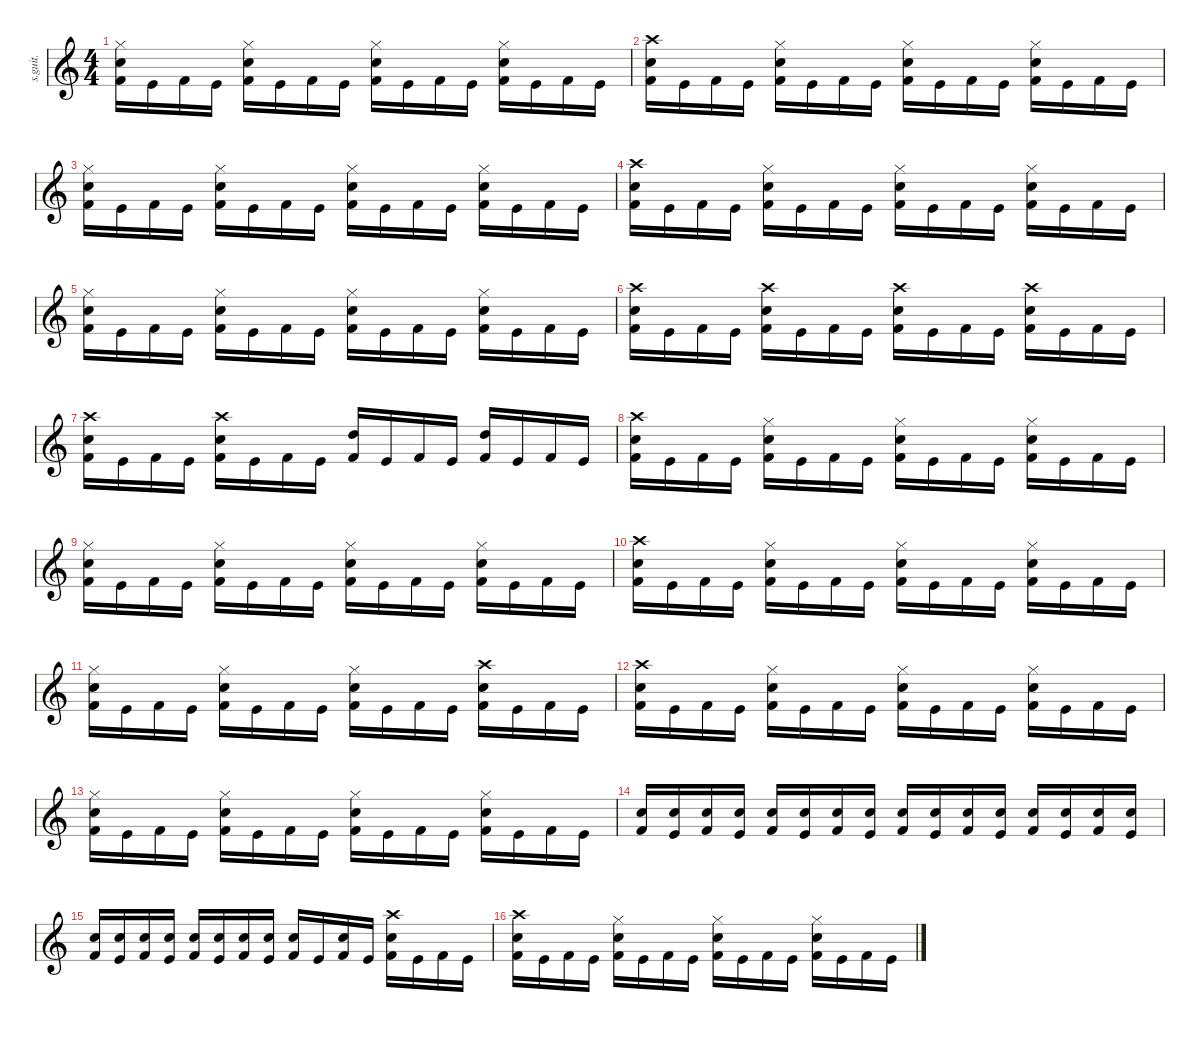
\defaultSystemsLayout 4
\hideDynamics
\bracketExtendMode nobrackets
\track ("Lars Ulrich - Drumzzz" "s.guit.") {instrument percussion}
\staff {score}
\articulation defaults
\ts (4 4)
\tempo (142 hide)
\clef g2
\ks c
("Hi-Hat (closed)" "Snare (hit) 2" "Kick (hit) 2").16{lyrics (0 "") lyrics (1 "") lyrics (2 "") lyrics (3 "") lyrics (4 "") dy f} "Kick (hit)".16{lyrics (0 "") lyrics (1 "") lyrics (2 "") lyrics (3 "") lyrics (4 "")} "Kick (hit) 2".16{lyrics (0 "") lyrics (1 "") lyrics (2 "") lyrics (3 "") lyrics (4 "")} "Kick (hit)".16{lyrics (0 "") lyrics (1 "") lyrics (2 "") lyrics (3 "") lyrics (4 "")} ("Hi-Hat (closed)" "Snare (hit) 2" "Kick (hit) 2").16{lyrics (0 "") lyrics (1 "") lyrics (2 "") lyrics (3 "") lyrics (4 "")} "Kick (hit)".16{lyrics (0 "") lyrics (1 "") lyrics (2 "") lyrics (3 "") lyrics (4 "")} "Kick (hit) 2".16{lyrics (0 "") lyrics (1 "") lyrics (2 "") lyrics (3 "") lyrics (4 "")} "Kick (hit)".16{lyrics (0 "") lyrics (1 "") lyrics (2 "") lyrics (3 "") lyrics (4 "")} ("Hi-Hat (closed)" "Snare (hit) 2" "Kick (hit) 2").16{lyrics (0 "") lyrics (1 "") lyrics (2 "") lyrics (3 "") lyrics (4 "")} "Kick (hit)".16{lyrics (0 "") lyrics (1 "") lyrics (2 "") lyrics (3 "") lyrics (4 "")} "Kick (hit) 2".16{lyrics (0 "") lyrics (1 "") lyrics (2 "") lyrics (3 "") lyrics (4 "")} "Kick (hit)".16{lyrics (0 "") lyrics (1 "") lyrics (2 "") lyrics (3 "") lyrics (4 "")} ("Hi-Hat (closed)" "Snare (hit) 2" "Kick (hit) 2").16{lyrics (0 "") lyrics (1 "") lyrics (2 "") lyrics (3 "") lyrics (4 "")} "Kick (hit)".16{lyrics (0 "") lyrics (1 "") lyrics (2 "") lyrics (3 "") lyrics (4 "")} "Kick (hit) 2".16{lyrics (0 "") lyrics (1 "") lyrics (2 "") lyrics (3 "") lyrics (4 "")} "Kick (hit)".16{lyrics (0 "") lyrics (1 "") lyrics (2 "") lyrics (3 "") lyrics (4 "")} |
("Crash high (hit)" "Snare (hit) 2" "Kick (hit) 2").16{lyrics (0 "") lyrics (1 "") lyrics (2 "") lyrics (3 "") lyrics (4 "")} "Kick (hit)".16{lyrics (0 "") lyrics (1 "") lyrics (2 "") lyrics (3 "") lyrics (4 "")} "Kick (hit) 2".16{lyrics (0 "") lyrics (1 "") lyrics (2 "") lyrics (3 "") lyrics (4 "")} "Kick (hit)".16{lyrics (0 "") lyrics (1 "") lyrics (2 "") lyrics (3 "") lyrics (4 "")} ("Hi-Hat (closed)" "Snare (hit) 2" "Kick (hit) 2").16{lyrics (0 "") lyrics (1 "") lyrics (2 "") lyrics (3 "") lyrics (4 "")} "Kick (hit)".16{lyrics (0 "") lyrics (1 "") lyrics (2 "") lyrics (3 "") lyrics (4 "")} "Kick (hit) 2".16{lyrics (0 "") lyrics (1 "") lyrics (2 "") lyrics (3 "") lyrics (4 "")} "Kick (hit)".16{lyrics (0 "") lyrics (1 "") lyrics (2 "") lyrics (3 "") lyrics (4 "")} ("Hi-Hat (closed)" "Snare (hit) 2" "Kick (hit) 2").16{lyrics (0 "") lyrics (1 "") lyrics (2 "") lyrics (3 "") lyrics (4 "")} "Kick (hit)".16{lyrics (0 "") lyrics (1 "") lyrics (2 "") lyrics (3 "") lyrics (4 "")} "Kick (hit) 2".16{lyrics (0 "") lyrics (1 "") lyrics (2 "") lyrics (3 "") lyrics (4 "")} "Kick (hit)".16{lyrics (0 "") lyrics (1 "") lyrics (2 "") lyrics (3 "") lyrics (4 "")} ("Hi-Hat (closed)" "Snare (hit) 2" "Kick (hit) 2").16{lyrics (0 "") lyrics (1 "") lyrics (2 "") lyrics (3 "") lyrics (4 "")} "Kick (hit)".16{lyrics (0 "") lyrics (1 "") lyrics (2 "") lyrics (3 "") lyrics (4 "")} "Kick (hit) 2".16{lyrics (0 "") lyrics (1 "") lyrics (2 "") lyrics (3 "") lyrics (4 "")} "Kick (hit)".16{lyrics (0 "") lyrics (1 "") lyrics (2 "") lyrics (3 "") lyrics (4 "")} |
("Hi-Hat (closed)" "Snare (hit) 2" "Kick (hit) 2").16{lyrics (0 "") lyrics (1 "") lyrics (2 "") lyrics (3 "") lyrics (4 "")} "Kick (hit)".16{lyrics (0 "") lyrics (1 "") lyrics (2 "") lyrics (3 "") lyrics (4 "")} "Kick (hit) 2".16{lyrics (0 "") lyrics (1 "") lyrics (2 "") lyrics (3 "") lyrics (4 "")} "Kick (hit)".16{lyrics (0 "") lyrics (1 "") lyrics (2 "") lyrics (3 "") lyrics (4 "")} ("Hi-Hat (closed)" "Snare (hit) 2" "Kick (hit) 2").16{lyrics (0 "") lyrics (1 "") lyrics (2 "") lyrics (3 "") lyrics (4 "")} "Kick (hit)".16{lyrics (0 "") lyrics (1 "") lyrics (2 "") lyrics (3 "") lyrics (4 "")} "Kick (hit) 2".16{lyrics (0 "") lyrics (1 "") lyrics (2 "") lyrics (3 "") lyrics (4 "")} "Kick (hit)".16{lyrics (0 "") lyrics (1 "") lyrics (2 "") lyrics (3 "") lyrics (4 "")} ("Hi-Hat (closed)" "Snare (hit) 2" "Kick (hit) 2").16{lyrics (0 "") lyrics (1 "") lyrics (2 "") lyrics (3 "") lyrics (4 "")} "Kick (hit)".16{lyrics (0 "") lyrics (1 "") lyrics (2 "") lyrics (3 "") lyrics (4 "")} "Kick (hit) 2".16{lyrics (0 "") lyrics (1 "") lyrics (2 "") lyrics (3 "") lyrics (4 "")} "Kick (hit)".16{lyrics (0 "") lyrics (1 "") lyrics (2 "") lyrics (3 "") lyrics (4 "")} ("Hi-Hat (closed)" "Snare (hit) 2" "Kick (hit) 2").16{lyrics (0 "") lyrics (1 "") lyrics (2 "") lyrics (3 "") lyrics (4 "")} "Kick (hit)".16{lyrics (0 "") lyrics (1 "") lyrics (2 "") lyrics (3 "") lyrics (4 "")} "Kick (hit) 2".16{lyrics (0 "") lyrics (1 "") lyrics (2 "") lyrics (3 "") lyrics (4 "")} "Kick (hit)".16{lyrics (0 "") lyrics (1 "") lyrics (2 "") lyrics (3 "") lyrics (4 "")} |
("Crash high (hit)" "Snare (hit) 2" "Kick (hit) 2").16{lyrics (0 "") lyrics (1 "") lyrics (2 "") lyrics (3 "") lyrics (4 "")} "Kick (hit)".16{lyrics (0 "") lyrics (1 "") lyrics (2 "") lyrics (3 "") lyrics (4 "")} "Kick (hit) 2".16{lyrics (0 "") lyrics (1 "") lyrics (2 "") lyrics (3 "") lyrics (4 "")} "Kick (hit)".16{lyrics (0 "") lyrics (1 "") lyrics (2 "") lyrics (3 "") lyrics (4 "")} ("Hi-Hat (closed)" "Snare (hit) 2" "Kick (hit) 2").16{lyrics (0 "") lyrics (1 "") lyrics (2 "") lyrics (3 "") lyrics (4 "")} "Kick (hit)".16{lyrics (0 "") lyrics (1 "") lyrics (2 "") lyrics (3 "") lyrics (4 "")} "Kick (hit) 2".16{lyrics (0 "") lyrics (1 "") lyrics (2 "") lyrics (3 "") lyrics (4 "")} "Kick (hit)".16{lyrics (0 "") lyrics (1 "") lyrics (2 "") lyrics (3 "") lyrics (4 "")} ("Hi-Hat (closed)" "Snare (hit) 2" "Kick (hit) 2").16{lyrics (0 "") lyrics (1 "") lyrics (2 "") lyrics (3 "") lyrics (4 "")} "Kick (hit)".16{lyrics (0 "") lyrics (1 "") lyrics (2 "") lyrics (3 "") lyrics (4 "")} "Kick (hit) 2".16{lyrics (0 "") lyrics (1 "") lyrics (2 "") lyrics (3 "") lyrics (4 "")} "Kick (hit)".16{lyrics (0 "") lyrics (1 "") lyrics (2 "") lyrics (3 "") lyrics (4 "")} ("Hi-Hat (closed)" "Snare (hit) 2" "Kick (hit) 2").16{lyrics (0 "") lyrics (1 "") lyrics (2 "") lyrics (3 "") lyrics (4 "")} "Kick (hit)".16{lyrics (0 "") lyrics (1 "") lyrics (2 "") lyrics (3 "") lyrics (4 "")} "Kick (hit) 2".16{lyrics (0 "") lyrics (1 "") lyrics (2 "") lyrics (3 "") lyrics (4 "")} "Kick (hit)".16{lyrics (0 "") lyrics (1 "") lyrics (2 "") lyrics (3 "") lyrics (4 "")} |
("Hi-Hat (closed)" "Snare (hit) 2" "Kick (hit) 2").16{lyrics (0 "") lyrics (1 "") lyrics (2 "") lyrics (3 "") lyrics (4 "")} "Kick (hit)".16{lyrics (0 "") lyrics (1 "") lyrics (2 "") lyrics (3 "") lyrics (4 "")} "Kick (hit) 2".16{lyrics (0 "") lyrics (1 "") lyrics (2 "") lyrics (3 "") lyrics (4 "")} "Kick (hit)".16{lyrics (0 "") lyrics (1 "") lyrics (2 "") lyrics (3 "") lyrics (4 "")} ("Hi-Hat (closed)" "Snare (hit) 2" "Kick (hit) 2").16{lyrics (0 "") lyrics (1 "") lyrics (2 "") lyrics (3 "") lyrics (4 "")} "Kick (hit)".16{lyrics (0 "") lyrics (1 "") lyrics (2 "") lyrics (3 "") lyrics (4 "")} "Kick (hit) 2".16{lyrics (0 "") lyrics (1 "") lyrics (2 "") lyrics (3 "") lyrics (4 "")} "Kick (hit)".16{lyrics (0 "") lyrics (1 "") lyrics (2 "") lyrics (3 "") lyrics (4 "")} ("Hi-Hat (closed)" "Snare (hit) 2" "Kick (hit) 2").16{lyrics (0 "") lyrics (1 "") lyrics (2 "") lyrics (3 "") lyrics (4 "")} "Kick (hit)".16{lyrics (0 "") lyrics (1 "") lyrics (2 "") lyrics (3 "") lyrics (4 "")} "Kick (hit) 2".16{lyrics (0 "") lyrics (1 "") lyrics (2 "") lyrics (3 "") lyrics (4 "")} "Kick (hit)".16{lyrics (0 "") lyrics (1 "") lyrics (2 "") lyrics (3 "") lyrics (4 "")} ("Hi-Hat (closed)" "Snare (hit) 2" "Kick (hit) 2").16{lyrics (0 "") lyrics (1 "") lyrics (2 "") lyrics (3 "") lyrics (4 "")} "Kick (hit)".16{lyrics (0 "") lyrics (1 "") lyrics (2 "") lyrics (3 "") lyrics (4 "")} "Kick (hit) 2".16{lyrics (0 "") lyrics (1 "") lyrics (2 "") lyrics (3 "") lyrics (4 "")} "Kick (hit)".16{lyrics (0 "") lyrics (1 "") lyrics (2 "") lyrics (3 "") lyrics (4 "")} |
("Crash high (hit)" "Snare (hit) 2" "Kick (hit) 2").16{lyrics (0 "") lyrics (1 "") lyrics (2 "") lyrics (3 "") lyrics (4 "")} "Kick (hit)".16{lyrics (0 "") lyrics (1 "") lyrics (2 "") lyrics (3 "") lyrics (4 "")} "Kick (hit) 2".16{lyrics (0 "") lyrics (1 "") lyrics (2 "") lyrics (3 "") lyrics (4 "")} "Kick (hit)".16{lyrics (0 "") lyrics (1 "") lyrics (2 "") lyrics (3 "") lyrics (4 "")} ("Crash high (hit)" "Snare (hit) 2" "Kick (hit) 2").16{lyrics (0 "") lyrics (1 "") lyrics (2 "") lyrics (3 "") lyrics (4 "")} "Kick (hit)".16{lyrics (0 "") lyrics (1 "") lyrics (2 "") lyrics (3 "") lyrics (4 "")} "Kick (hit) 2".16{lyrics (0 "") lyrics (1 "") lyrics (2 "") lyrics (3 "") lyrics (4 "")} "Kick (hit)".16{lyrics (0 "") lyrics (1 "") lyrics (2 "") lyrics (3 "") lyrics (4 "")} ("Crash high (hit)" "Snare (hit) 2" "Kick (hit) 2").16{lyrics (0 "") lyrics (1 "") lyrics (2 "") lyrics (3 "") lyrics (4 "")} "Kick (hit)".16{lyrics (0 "") lyrics (1 "") lyrics (2 "") lyrics (3 "") lyrics (4 "")} "Kick (hit) 2".16{lyrics (0 "") lyrics (1 "") lyrics (2 "") lyrics (3 "") lyrics (4 "")} "Kick (hit)".16{lyrics (0 "") lyrics (1 "") lyrics (2 "") lyrics (3 "") lyrics (4 "")} ("Crash high (hit)" "Snare (hit) 2" "Kick (hit) 2").16{lyrics (0 "") lyrics (1 "") lyrics (2 "") lyrics (3 "") lyrics (4 "")} "Kick (hit)".16{lyrics (0 "") lyrics (1 "") lyrics (2 "") lyrics (3 "") lyrics (4 "")} "Kick (hit) 2".16{lyrics (0 "") lyrics (1 "") lyrics (2 "") lyrics (3 "") lyrics (4 "")} "Kick (hit)".16{lyrics (0 "") lyrics (1 "") lyrics (2 "") lyrics (3 "") lyrics (4 "")} |
("Crash high (hit)" "Snare (hit) 2" "Kick (hit) 2").16{lyrics (0 "") lyrics (1 "") lyrics (2 "") lyrics (3 "") lyrics (4 "")} "Kick (hit)".16{lyrics (0 "") lyrics (1 "") lyrics (2 "") lyrics (3 "") lyrics (4 "")} "Kick (hit) 2".16{lyrics (0 "") lyrics (1 "") lyrics (2 "") lyrics (3 "") lyrics (4 "")} "Kick (hit)".16{lyrics (0 "") lyrics (1 "") lyrics (2 "") lyrics (3 "") lyrics (4 "")} ("Crash high (hit)" "Snare (hit) 2" "Kick (hit) 2").16{lyrics (0 "") lyrics (1 "") lyrics (2 "") lyrics (3 "") lyrics (4 "")} "Kick (hit)".16{lyrics (0 "") lyrics (1 "") lyrics (2 "") lyrics (3 "") lyrics (4 "")} "Kick (hit) 2".16{lyrics (0 "") lyrics (1 "") lyrics (2 "") lyrics (3 "") lyrics (4 "")} "Kick (hit)".16{lyrics (0 "") lyrics (1 "") lyrics (2 "") lyrics (3 "") lyrics (4 "")} ("High Tom (hit)" "Kick (hit) 2").16{lyrics (0 "") lyrics (1 "") lyrics (2 "") lyrics (3 "") lyrics (4 "")} "Kick (hit)".16{lyrics (0 "") lyrics (1 "") lyrics (2 "") lyrics (3 "") lyrics (4 "")} "Kick (hit) 2".16{lyrics (0 "") lyrics (1 "") lyrics (2 "") lyrics (3 "") lyrics (4 "")} "Kick (hit)".16{lyrics (0 "") lyrics (1 "") lyrics (2 "") lyrics (3 "") lyrics (4 "")} ("High Tom (hit)" "Kick (hit) 2").16{lyrics (0 "") lyrics (1 "") lyrics (2 "") lyrics (3 "") lyrics (4 "")} "Kick (hit)".16{lyrics (0 "") lyrics (1 "") lyrics (2 "") lyrics (3 "") lyrics (4 "")} "Kick (hit) 2".16{lyrics (0 "") lyrics (1 "") lyrics (2 "") lyrics (3 "") lyrics (4 "")} "Kick (hit)".16{lyrics (0 "") lyrics (1 "") lyrics (2 "") lyrics (3 "") lyrics (4 "")} |
("Crash high (hit)" "Snare (hit) 2" "Kick (hit) 2").16{lyrics (0 "") lyrics (1 "") lyrics (2 "") lyrics (3 "") lyrics (4 "")} "Kick (hit)".16{lyrics (0 "") lyrics (1 "") lyrics (2 "") lyrics (3 "") lyrics (4 "")} "Kick (hit) 2".16{lyrics (0 "") lyrics (1 "") lyrics (2 "") lyrics (3 "") lyrics (4 "")} "Kick (hit)".16{lyrics (0 "") lyrics (1 "") lyrics (2 "") lyrics (3 "") lyrics (4 "")} ("Hi-Hat (closed)" "Snare (hit) 2" "Kick (hit) 2").16{lyrics (0 "") lyrics (1 "") lyrics (2 "") lyrics (3 "") lyrics (4 "")} "Kick (hit)".16{lyrics (0 "") lyrics (1 "") lyrics (2 "") lyrics (3 "") lyrics (4 "")} "Kick (hit) 2".16{lyrics (0 "") lyrics (1 "") lyrics (2 "") lyrics (3 "") lyrics (4 "")} "Kick (hit)".16{lyrics (0 "") lyrics (1 "") lyrics (2 "") lyrics (3 "") lyrics (4 "")} ("Hi-Hat (closed)" "Snare (hit) 2" "Kick (hit) 2").16{lyrics (0 "") lyrics (1 "") lyrics (2 "") lyrics (3 "") lyrics (4 "")} "Kick (hit)".16{lyrics (0 "") lyrics (1 "") lyrics (2 "") lyrics (3 "") lyrics (4 "")} "Kick (hit) 2".16{lyrics (0 "") lyrics (1 "") lyrics (2 "") lyrics (3 "") lyrics (4 "")} "Kick (hit)".16{lyrics (0 "") lyrics (1 "") lyrics (2 "") lyrics (3 "") lyrics (4 "")} ("Hi-Hat (closed)" "Snare (hit) 2" "Kick (hit) 2").16{lyrics (0 "") lyrics (1 "") lyrics (2 "") lyrics (3 "") lyrics (4 "")} "Kick (hit)".16{lyrics (0 "") lyrics (1 "") lyrics (2 "") lyrics (3 "") lyrics (4 "")} "Kick (hit) 2".16{lyrics (0 "") lyrics (1 "") lyrics (2 "") lyrics (3 "") lyrics (4 "")} "Kick (hit)".16{lyrics (0 "") lyrics (1 "") lyrics (2 "") lyrics (3 "") lyrics (4 "")} |
("Hi-Hat (closed)" "Snare (hit) 2" "Kick (hit) 2").16{lyrics (0 "") lyrics (1 "") lyrics (2 "") lyrics (3 "") lyrics (4 "")} "Kick (hit)".16{lyrics (0 "") lyrics (1 "") lyrics (2 "") lyrics (3 "") lyrics (4 "")} "Kick (hit) 2".16{lyrics (0 "") lyrics (1 "") lyrics (2 "") lyrics (3 "") lyrics (4 "")} "Kick (hit)".16{lyrics (0 "") lyrics (1 "") lyrics (2 "") lyrics (3 "") lyrics (4 "")} ("Hi-Hat (closed)" "Snare (hit) 2" "Kick (hit) 2").16{lyrics (0 "") lyrics (1 "") lyrics (2 "") lyrics (3 "") lyrics (4 "")} "Kick (hit)".16{lyrics (0 "") lyrics (1 "") lyrics (2 "") lyrics (3 "") lyrics (4 "")} "Kick (hit) 2".16{lyrics (0 "") lyrics (1 "") lyrics (2 "") lyrics (3 "") lyrics (4 "")} "Kick (hit)".16{lyrics (0 "") lyrics (1 "") lyrics (2 "") lyrics (3 "") lyrics (4 "")} ("Hi-Hat (closed)" "Snare (hit) 2" "Kick (hit) 2").16{lyrics (0 "") lyrics (1 "") lyrics (2 "") lyrics (3 "") lyrics (4 "")} "Kick (hit)".16{lyrics (0 "") lyrics (1 "") lyrics (2 "") lyrics (3 "") lyrics (4 "")} "Kick (hit) 2".16{lyrics (0 "") lyrics (1 "") lyrics (2 "") lyrics (3 "") lyrics (4 "")} "Kick (hit)".16{lyrics (0 "") lyrics (1 "") lyrics (2 "") lyrics (3 "") lyrics (4 "")} ("Hi-Hat (closed)" "Snare (hit) 2" "Kick (hit) 2").16{lyrics (0 "") lyrics (1 "") lyrics (2 "") lyrics (3 "") lyrics (4 "")} "Kick (hit)".16{lyrics (0 "") lyrics (1 "") lyrics (2 "") lyrics (3 "") lyrics (4 "")} "Kick (hit) 2".16{lyrics (0 "") lyrics (1 "") lyrics (2 "") lyrics (3 "") lyrics (4 "")} "Kick (hit)".16{lyrics (0 "") lyrics (1 "") lyrics (2 "") lyrics (3 "") lyrics (4 "")} |
("Crash high (hit)" "Snare (hit) 2" "Kick (hit) 2").16{lyrics (0 "") lyrics (1 "") lyrics (2 "") lyrics (3 "") lyrics (4 "")} "Kick (hit)".16{lyrics (0 "") lyrics (1 "") lyrics (2 "") lyrics (3 "") lyrics (4 "")} "Kick (hit) 2".16{lyrics (0 "") lyrics (1 "") lyrics (2 "") lyrics (3 "") lyrics (4 "")} "Kick (hit)".16{lyrics (0 "") lyrics (1 "") lyrics (2 "") lyrics (3 "") lyrics (4 "")} ("Hi-Hat (closed)" "Snare (hit) 2" "Kick (hit) 2").16{lyrics (0 "") lyrics (1 "") lyrics (2 "") lyrics (3 "") lyrics (4 "")} "Kick (hit)".16{lyrics (0 "") lyrics (1 "") lyrics (2 "") lyrics (3 "") lyrics (4 "")} "Kick (hit) 2".16{lyrics (0 "") lyrics (1 "") lyrics (2 "") lyrics (3 "") lyrics (4 "")} "Kick (hit)".16{lyrics (0 "") lyrics (1 "") lyrics (2 "") lyrics (3 "") lyrics (4 "")} ("Hi-Hat (closed)" "Snare (hit) 2" "Kick (hit) 2").16{lyrics (0 "") lyrics (1 "") lyrics (2 "") lyrics (3 "") lyrics (4 "")} "Kick (hit)".16{lyrics (0 "") lyrics (1 "") lyrics (2 "") lyrics (3 "") lyrics (4 "")} "Kick (hit) 2".16{lyrics (0 "") lyrics (1 "") lyrics (2 "") lyrics (3 "") lyrics (4 "")} "Kick (hit)".16{lyrics (0 "") lyrics (1 "") lyrics (2 "") lyrics (3 "") lyrics (4 "")} ("Hi-Hat (closed)" "Snare (hit) 2" "Kick (hit) 2").16{lyrics (0 "") lyrics (1 "") lyrics (2 "") lyrics (3 "") lyrics (4 "")} "Kick (hit)".16{lyrics (0 "") lyrics (1 "") lyrics (2 "") lyrics (3 "") lyrics (4 "")} "Kick (hit) 2".16{lyrics (0 "") lyrics (1 "") lyrics (2 "") lyrics (3 "") lyrics (4 "")} "Kick (hit)".16{lyrics (0 "") lyrics (1 "") lyrics (2 "") lyrics (3 "") lyrics (4 "")} |
("Hi-Hat (closed)" "Snare (hit) 2" "Kick (hit) 2").16{lyrics (0 "") lyrics (1 "") lyrics (2 "") lyrics (3 "") lyrics (4 "")} "Kick (hit)".16{lyrics (0 "") lyrics (1 "") lyrics (2 "") lyrics (3 "") lyrics (4 "")} "Kick (hit) 2".16{lyrics (0 "") lyrics (1 "") lyrics (2 "") lyrics (3 "") lyrics (4 "")} "Kick (hit)".16{lyrics (0 "") lyrics (1 "") lyrics (2 "") lyrics (3 "") lyrics (4 "")} ("Hi-Hat (closed)" "Snare (hit) 2" "Kick (hit) 2").16{lyrics (0 "") lyrics (1 "") lyrics (2 "") lyrics (3 "") lyrics (4 "")} "Kick (hit)".16{lyrics (0 "") lyrics (1 "") lyrics (2 "") lyrics (3 "") lyrics (4 "")} "Kick (hit) 2".16{lyrics (0 "") lyrics (1 "") lyrics (2 "") lyrics (3 "") lyrics (4 "")} "Kick (hit)".16{lyrics (0 "") lyrics (1 "") lyrics (2 "") lyrics (3 "") lyrics (4 "")} ("Hi-Hat (closed)" "Snare (hit) 2" "Kick (hit) 2").16{lyrics (0 "") lyrics (1 "") lyrics (2 "") lyrics (3 "") lyrics (4 "")} "Kick (hit)".16{lyrics (0 "") lyrics (1 "") lyrics (2 "") lyrics (3 "") lyrics (4 "")} "Kick (hit) 2".16{lyrics (0 "") lyrics (1 "") lyrics (2 "") lyrics (3 "") lyrics (4 "")} "Kick (hit)".16{lyrics (0 "") lyrics (1 "") lyrics (2 "") lyrics (3 "") lyrics (4 "")} ("Crash high (hit)" "Snare (hit) 2" "Kick (hit) 2").16{lyrics (0 "") lyrics (1 "") lyrics (2 "") lyrics (3 "") lyrics (4 "")} "Kick (hit)".16{lyrics (0 "") lyrics (1 "") lyrics (2 "") lyrics (3 "") lyrics (4 "")} "Kick (hit) 2".16{lyrics (0 "") lyrics (1 "") lyrics (2 "") lyrics (3 "") lyrics (4 "")} "Kick (hit)".16{lyrics (0 "") lyrics (1 "") lyrics (2 "") lyrics (3 "") lyrics (4 "")} |
("Crash high (hit)" "Snare (hit) 2" "Kick (hit) 2").16{lyrics (0 "") lyrics (1 "") lyrics (2 "") lyrics (3 "") lyrics (4 "")} "Kick (hit)".16{lyrics (0 "") lyrics (1 "") lyrics (2 "") lyrics (3 "") lyrics (4 "")} "Kick (hit) 2".16{lyrics (0 "") lyrics (1 "") lyrics (2 "") lyrics (3 "") lyrics (4 "")} "Kick (hit)".16{lyrics (0 "") lyrics (1 "") lyrics (2 "") lyrics (3 "") lyrics (4 "")} ("Hi-Hat (closed)" "Snare (hit) 2" "Kick (hit) 2").16{lyrics (0 "") lyrics (1 "") lyrics (2 "") lyrics (3 "") lyrics (4 "")} "Kick (hit)".16{lyrics (0 "") lyrics (1 "") lyrics (2 "") lyrics (3 "") lyrics (4 "")} "Kick (hit) 2".16{lyrics (0 "") lyrics (1 "") lyrics (2 "") lyrics (3 "") lyrics (4 "")} "Kick (hit)".16{lyrics (0 "") lyrics (1 "") lyrics (2 "") lyrics (3 "") lyrics (4 "")} ("Hi-Hat (closed)" "Snare (hit) 2" "Kick (hit) 2").16{lyrics (0 "") lyrics (1 "") lyrics (2 "") lyrics (3 "") lyrics (4 "")} "Kick (hit)".16{lyrics (0 "") lyrics (1 "") lyrics (2 "") lyrics (3 "") lyrics (4 "")} "Kick (hit) 2".16{lyrics (0 "") lyrics (1 "") lyrics (2 "") lyrics (3 "") lyrics (4 "")} "Kick (hit)".16{lyrics (0 "") lyrics (1 "") lyrics (2 "") lyrics (3 "") lyrics (4 "")} ("Hi-Hat (closed)" "Snare (hit) 2" "Kick (hit) 2").16{lyrics (0 "") lyrics (1 "") lyrics (2 "") lyrics (3 "") lyrics (4 "")} "Kick (hit)".16{lyrics (0 "") lyrics (1 "") lyrics (2 "") lyrics (3 "") lyrics (4 "")} "Kick (hit) 2".16{lyrics (0 "") lyrics (1 "") lyrics (2 "") lyrics (3 "") lyrics (4 "")} "Kick (hit)".16{lyrics (0 "") lyrics (1 "") lyrics (2 "") lyrics (3 "") lyrics (4 "")} |
("Hi-Hat (closed)" "Snare (hit) 2" "Kick (hit) 2").16{lyrics (0 "") lyrics (1 "") lyrics (2 "") lyrics (3 "") lyrics (4 "")} "Kick (hit)".16{lyrics (0 "") lyrics (1 "") lyrics (2 "") lyrics (3 "") lyrics (4 "")} "Kick (hit) 2".16{lyrics (0 "") lyrics (1 "") lyrics (2 "") lyrics (3 "") lyrics (4 "")} "Kick (hit)".16{lyrics (0 "") lyrics (1 "") lyrics (2 "") lyrics (3 "") lyrics (4 "")} ("Hi-Hat (closed)" "Snare (hit) 2" "Kick (hit) 2").16{lyrics (0 "") lyrics (1 "") lyrics (2 "") lyrics (3 "") lyrics (4 "")} "Kick (hit)".16{lyrics (0 "") lyrics (1 "") lyrics (2 "") lyrics (3 "") lyrics (4 "")} "Kick (hit) 2".16{lyrics (0 "") lyrics (1 "") lyrics (2 "") lyrics (3 "") lyrics (4 "")} "Kick (hit)".16{lyrics (0 "") lyrics (1 "") lyrics (2 "") lyrics (3 "") lyrics (4 "")} ("Hi-Hat (closed)" "Snare (hit) 2" "Kick (hit) 2").16{lyrics (0 "") lyrics (1 "") lyrics (2 "") lyrics (3 "") lyrics (4 "")} "Kick (hit)".16{lyrics (0 "") lyrics (1 "") lyrics (2 "") lyrics (3 "") lyrics (4 "")} "Kick (hit) 2".16{lyrics (0 "") lyrics (1 "") lyrics (2 "") lyrics (3 "") lyrics (4 "")} "Kick (hit)".16{lyrics (0 "") lyrics (1 "") lyrics (2 "") lyrics (3 "") lyrics (4 "")} ("Hi-Hat (closed)" "Snare (hit) 2" "Kick (hit) 2").16{lyrics (0 "") lyrics (1 "") lyrics (2 "") lyrics (3 "") lyrics (4 "")} "Kick (hit)".16{lyrics (0 "") lyrics (1 "") lyrics (2 "") lyrics (3 "") lyrics (4 "")} "Kick (hit) 2".16{lyrics (0 "") lyrics (1 "") lyrics (2 "") lyrics (3 "") lyrics (4 "")} "Kick (hit)".16{lyrics (0 "") lyrics (1 "") lyrics (2 "") lyrics (3 "") lyrics (4 "")} |
("Snare (hit) 2" "Kick (hit) 2").16{lyrics (0 "") lyrics (1 "") lyrics (2 "") lyrics (3 "") lyrics (4 "")} ("Snare (hit) 2" "Kick (hit)").16{lyrics (0 "") lyrics (1 "") lyrics (2 "") lyrics (3 "") lyrics (4 "")} ("Snare (hit) 2" "Kick (hit) 2").16{lyrics (0 "") lyrics (1 "") lyrics (2 "") lyrics (3 "") lyrics (4 "")} ("Snare (hit) 2" "Kick (hit)").16{lyrics (0 "") lyrics (1 "") lyrics (2 "") lyrics (3 "") lyrics (4 "")} ("Snare (hit) 2" "Kick (hit) 2").16{lyrics (0 "") lyrics (1 "") lyrics (2 "") lyrics (3 "") lyrics (4 "")} ("Snare (hit) 2" "Kick (hit)").16{lyrics (0 "") lyrics (1 "") lyrics (2 "") lyrics (3 "") lyrics (4 "")} ("Snare (hit) 2" "Kick (hit) 2").16{lyrics (0 "") lyrics (1 "") lyrics (2 "") lyrics (3 "") lyrics (4 "")} ("Snare (hit) 2" "Kick (hit)").16{lyrics (0 "") lyrics (1 "") lyrics (2 "") lyrics (3 "") lyrics (4 "")} ("Snare (hit) 2" "Kick (hit) 2").16{lyrics (0 "") lyrics (1 "") lyrics (2 "") lyrics (3 "") lyrics (4 "")} ("Snare (hit) 2" "Kick (hit)").16{lyrics (0 "") lyrics (1 "") lyrics (2 "") lyrics (3 "") lyrics (4 "")} ("Snare (hit) 2" "Kick (hit) 2").16{lyrics (0 "") lyrics (1 "") lyrics (2 "") lyrics (3 "") lyrics (4 "")} ("Snare (hit) 2" "Kick (hit)").16{lyrics (0 "") lyrics (1 "") lyrics (2 "") lyrics (3 "") lyrics (4 "")} ("Snare (hit) 2" "Kick (hit) 2").16{lyrics (0 "") lyrics (1 "") lyrics (2 "") lyrics (3 "") lyrics (4 "")} ("Snare (hit) 2" "Kick (hit)").16{lyrics (0 "") lyrics (1 "") lyrics (2 "") lyrics (3 "") lyrics (4 "")} ("Snare (hit) 2" "Kick (hit) 2").16{lyrics (0 "") lyrics (1 "") lyrics (2 "") lyrics (3 "") lyrics (4 "")} ("Snare (hit) 2" "Kick (hit)").16{lyrics (0 "") lyrics (1 "") lyrics (2 "") lyrics (3 "") lyrics (4 "")} |
("Snare (hit) 2" "Kick (hit) 2").16{lyrics (0 "") lyrics (1 "") lyrics (2 "") lyrics (3 "") lyrics (4 "")} ("Snare (hit) 2" "Kick (hit)").16{lyrics (0 "") lyrics (1 "") lyrics (2 "") lyrics (3 "") lyrics (4 "")} ("Snare (hit) 2" "Kick (hit) 2").16{lyrics (0 "") lyrics (1 "") lyrics (2 "") lyrics (3 "") lyrics (4 "")} ("Snare (hit) 2" "Kick (hit)").16{lyrics (0 "") lyrics (1 "") lyrics (2 "") lyrics (3 "") lyrics (4 "")} ("Snare (hit) 2" "Kick (hit) 2").16{lyrics (0 "") lyrics (1 "") lyrics (2 "") lyrics (3 "") lyrics (4 "")} ("Snare (hit) 2" "Kick (hit)").16{lyrics (0 "") lyrics (1 "") lyrics (2 "") lyrics (3 "") lyrics (4 "")} ("Snare (hit) 2" "Kick (hit) 2").16{lyrics (0 "") lyrics (1 "") lyrics (2 "") lyrics (3 "") lyrics (4 "")} ("Snare (hit) 2" "Kick (hit)").16{lyrics (0 "") lyrics (1 "") lyrics (2 "") lyrics (3 "") lyrics (4 "")} ("Snare (hit) 2" "Kick (hit) 2").16{lyrics (0 "") lyrics (1 "") lyrics (2 "") lyrics (3 "") lyrics (4 "")} "Kick (hit)".16{lyrics (0 "") lyrics (1 "") lyrics (2 "") lyrics (3 "") lyrics (4 "")} ("Snare (hit) 2" "Kick (hit) 2").16{lyrics (0 "") lyrics (1 "") lyrics (2 "") lyrics (3 "") lyrics (4 "")} "Kick (hit)".16{lyrics (0 "") lyrics (1 "") lyrics (2 "") lyrics (3 "") lyrics (4 "")} ("Crash high (hit)" "Snare (hit) 2" "Kick (hit) 2").16{lyrics (0 "") lyrics (1 "") lyrics (2 "") lyrics (3 "") lyrics (4 "")} "Kick (hit)".16{lyrics (0 "") lyrics (1 "") lyrics (2 "") lyrics (3 "") lyrics (4 "")} "Kick (hit) 2".16{lyrics (0 "") lyrics (1 "") lyrics (2 "") lyrics (3 "") lyrics (4 "")} "Kick (hit)".16{lyrics (0 "") lyrics (1 "") lyrics (2 "") lyrics (3 "") lyrics (4 "")} |
("Crash high (hit)" "Snare (hit) 2" "Kick (hit) 2").16{lyrics (0 "") lyrics (1 "") lyrics (2 "") lyrics (3 "") lyrics (4 "")} "Kick (hit)".16{lyrics (0 "") lyrics (1 "") lyrics (2 "") lyrics (3 "") lyrics (4 "")} "Kick (hit) 2".16{lyrics (0 "") lyrics (1 "") lyrics (2 "") lyrics (3 "") lyrics (4 "")} "Kick (hit)".16{lyrics (0 "") lyrics (1 "") lyrics (2 "") lyrics (3 "") lyrics (4 "")} ("Hi-Hat (closed)" "Snare (hit) 2" "Kick (hit) 2").16{lyrics (0 "") lyrics (1 "") lyrics (2 "") lyrics (3 "") lyrics (4 "")} "Kick (hit)".16{lyrics (0 "") lyrics (1 "") lyrics (2 "") lyrics (3 "") lyrics (4 "")} "Kick (hit) 2".16{lyrics (0 "") lyrics (1 "") lyrics (2 "") lyrics (3 "") lyrics (4 "")} "Kick (hit)".16{lyrics (0 "") lyrics (1 "") lyrics (2 "") lyrics (3 "") lyrics (4 "")} ("Hi-Hat (closed)" "Snare (hit) 2" "Kick (hit) 2").16{lyrics (0 "") lyrics (1 "") lyrics (2 "") lyrics (3 "") lyrics (4 "")} "Kick (hit)".16{lyrics (0 "") lyrics (1 "") lyrics (2 "") lyrics (3 "") lyrics (4 "")} "Kick (hit) 2".16{lyrics (0 "") lyrics (1 "") lyrics (2 "") lyrics (3 "") lyrics (4 "")} "Kick (hit)".16{lyrics (0 "") lyrics (1 "") lyrics (2 "") lyrics (3 "") lyrics (4 "")} ("Hi-Hat (closed)" "Snare (hit) 2" "Kick (hit) 2").16{lyrics (0 "") lyrics (1 "") lyrics (2 "") lyrics (3 "") lyrics (4 "")} "Kick (hit)".16{lyrics (0 "") lyrics (1 "") lyrics (2 "") lyrics (3 "") lyrics (4 "")} "Kick (hit) 2".16{lyrics (0 "") lyrics (1 "") lyrics (2 "") lyrics (3 "") lyrics (4 "")} "Kick (hit)".16{lyrics (0 "") lyrics (1 "") lyrics (2 "") lyrics (3 "") lyrics (4 "")}
